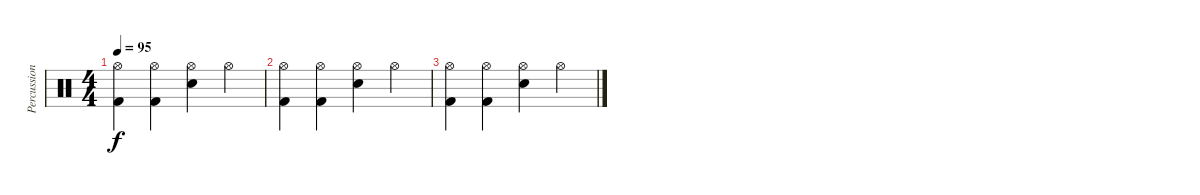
\track ("Percussion" "Percussion") {instrument percussion}
\staff {score}
\articulation defaults
\ts (4 4)
\tempo 95
\clef neutral
\ks c
("Hi-Hat (open)" "Kick (hit) 2").4{dy f} ("Hi-Hat (open)" "Kick (hit) 2").4 ("Hi-Hat (open)" "Snare (hit) 2").4 "Hi-Hat (open)".4 |
("Hi-Hat (open)" "Kick (hit) 2").4 ("Hi-Hat (open)" "Kick (hit) 2").4 ("Hi-Hat (open)" "Snare (hit) 2").4 "Hi-Hat (open)".4 |
("Hi-Hat (open)" "Kick (hit) 2").4 ("Hi-Hat (open)" "Kick (hit) 2").4 ("Hi-Hat (open)" "Snare (hit) 2").4 "Hi-Hat (open)".4
